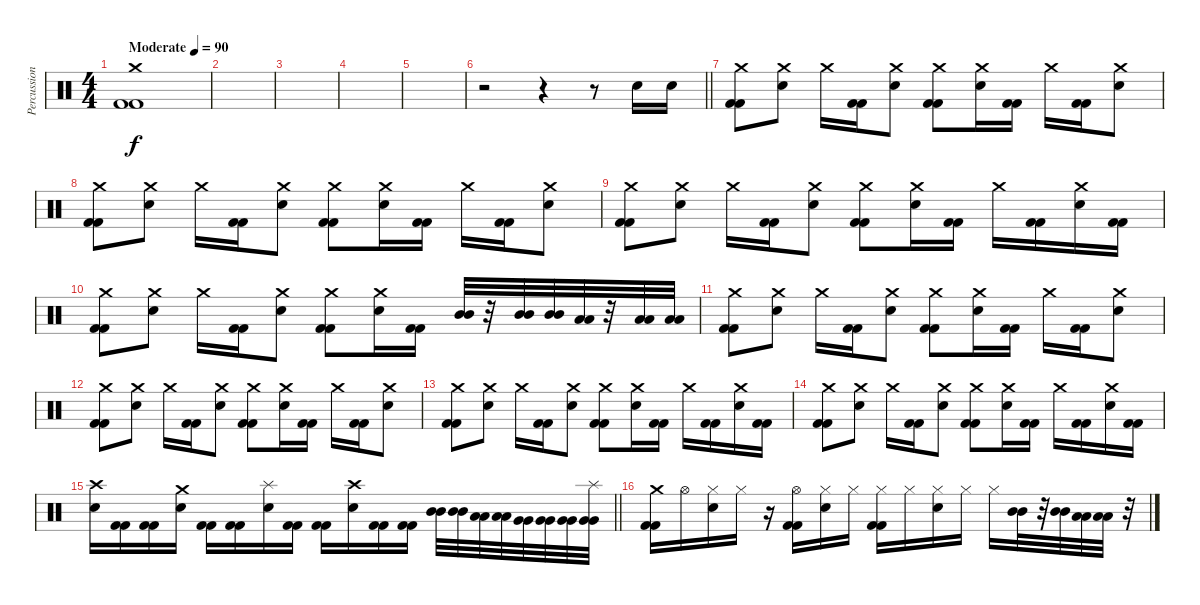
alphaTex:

\track ("Percussion" "Percussion") {instrument percussion}
\staff {score}
\articulation defaults
\ts (4 4)
\tempo (90 "Moderate")
\clef neutral
\ks c
("Crash medium (hit)" "Kick (hit) 2" "Kick (hit) 2").1{dy f} |
|
|
|
|
\barLineRight lightlight
r.2 r.4 r.8 "Electric Snare (hit)".16 "Electric Snare (hit)".16 |
\section ("" "")
("Crash medium (hit)" "Kick (hit) 2" "Kick (hit) 2").8 ("Crash medium (hit)" "Electric Snare (hit)").8 "Crash medium (hit)".16 ("Kick (hit) 2" "Kick (hit) 2").16 ("Crash medium (hit)" "Electric Snare (hit)").8 ("Crash medium (hit)" "Kick (hit) 2" "Kick (hit) 2").8 ("Crash medium (hit)" "Electric Snare (hit)").16 ("Kick (hit) 2" "Kick (hit) 2").16 "Crash medium (hit)".16 ("Kick (hit) 2" "Kick (hit) 2").16 ("Crash medium (hit)" "Electric Snare (hit)").8 |
("Crash medium (hit)" "Kick (hit) 2" "Kick (hit) 2").8 ("Crash medium (hit)" "Electric Snare (hit)").8 "Crash medium (hit)".16 ("Kick (hit) 2" "Kick (hit) 2").16 ("Crash medium (hit)" "Electric Snare (hit)").8 ("Crash medium (hit)" "Kick (hit) 2" "Kick (hit) 2").8 ("Crash medium (hit)" "Electric Snare (hit)").16 ("Kick (hit) 2" "Kick (hit) 2").16 "Crash medium (hit)".16 ("Kick (hit) 2" "Kick (hit) 2").16 ("Crash medium (hit)" "Electric Snare (hit)").8 |
("Crash medium (hit)" "Kick (hit) 2" "Kick (hit) 2").8 ("Crash medium (hit)" "Electric Snare (hit)").8 "Crash medium (hit)".16 ("Kick (hit) 2" "Kick (hit) 2").16 ("Crash medium (hit)" "Electric Snare (hit)").8 ("Crash medium (hit)" "Kick (hit) 2" "Kick (hit) 2").8 ("Crash medium (hit)" "Electric Snare (hit)").16 ("Kick (hit) 2" "Kick (hit) 2").16 "Crash medium (hit)".16 ("Kick (hit) 2" "Kick (hit) 2").16 ("Crash medium (hit)" "Electric Snare (hit)").16 ("Kick (hit) 2" "Kick (hit) 2").16 |
("Crash medium (hit)" "Kick (hit) 2" "Kick (hit) 2").8 ("Crash medium (hit)" "Electric Snare (hit)").8 "Crash medium (hit)".16 ("Kick (hit) 2" "Kick (hit) 2").16 ("Crash medium (hit)" "Electric Snare (hit)").8 ("Crash medium (hit)" "Kick (hit) 2" "Kick (hit) 2").8 ("Crash medium (hit)" "Electric Snare (hit)").16 ("Kick (hit) 2" "Kick (hit) 2").16 ("Mid Tom (hit)" "Mid Tom (hit)").32 r.32 ("Mid Tom (hit)" "Mid Tom (hit)").32 ("Mid Tom (hit)" "Mid Tom (hit)").32 ("Low Tom (hit)" "Low Tom (hit)").32 r.32 ("Low Tom (hit)" "Low Tom (hit)").32 ("Low Tom (hit)" "Low Tom (hit)").32 |
("Crash medium (hit)" "Kick (hit) 2" "Kick (hit) 2").8 ("Crash medium (hit)" "Electric Snare (hit)").8 "Crash medium (hit)".16 ("Kick (hit) 2" "Kick (hit) 2").16 ("Crash medium (hit)" "Electric Snare (hit)").8 ("Crash medium (hit)" "Kick (hit) 2" "Kick (hit) 2").8 ("Crash medium (hit)" "Electric Snare (hit)").16 ("Kick (hit) 2" "Kick (hit) 2").16 "Crash medium (hit)".16 ("Kick (hit) 2" "Kick (hit) 2").16 ("Crash medium (hit)" "Electric Snare (hit)").8 |
("Crash medium (hit)" "Kick (hit) 2" "Kick (hit) 2").8 ("Crash medium (hit)" "Electric Snare (hit)").8 "Crash medium (hit)".16 ("Kick (hit) 2" "Kick (hit) 2").16 ("Crash medium (hit)" "Electric Snare (hit)").8 ("Crash medium (hit)" "Kick (hit) 2" "Kick (hit) 2").8 ("Crash medium (hit)" "Electric Snare (hit)").16 ("Kick (hit) 2" "Kick (hit) 2").16 "Crash medium (hit)".16 ("Kick (hit) 2" "Kick (hit) 2").16 ("Crash medium (hit)" "Electric Snare (hit)").8 |
("Crash medium (hit)" "Kick (hit) 2" "Kick (hit) 2").8 ("Crash medium (hit)" "Electric Snare (hit)").8 "Crash medium (hit)".16 ("Kick (hit) 2" "Kick (hit) 2").16 ("Crash medium (hit)" "Electric Snare (hit)").8 ("Crash medium (hit)" "Kick (hit) 2" "Kick (hit) 2").8 ("Crash medium (hit)" "Electric Snare (hit)").16 ("Kick (hit) 2" "Kick (hit) 2").16 "Crash medium (hit)".16 ("Kick (hit) 2" "Kick (hit) 2").16 ("Crash medium (hit)" "Electric Snare (hit)").16 ("Kick (hit) 2" "Kick (hit) 2").16 |
("Crash medium (hit)" "Kick (hit) 2" "Kick (hit) 2").8 ("Crash medium (hit)" "Electric Snare (hit)").8 "Crash medium (hit)".16 ("Kick (hit) 2" "Kick (hit) 2").16 ("Crash medium (hit)" "Electric Snare (hit)").8 ("Crash medium (hit)" "Kick (hit) 2" "Kick (hit) 2").8 ("Crash medium (hit)" "Electric Snare (hit)").16 ("Kick (hit) 2" "Kick (hit) 2").16 "Crash medium (hit)".16 ("Kick (hit) 2" "Kick (hit) 2").16 ("Crash medium (hit)" "Electric Snare (hit)").16 ("Kick (hit) 2" "Kick (hit) 2").16 |
\barLineRight lightlight
("Crash high (hit)" "Electric Snare (hit)").16 ("Kick (hit) 2" "Kick (hit) 2").16 ("Kick (hit) 2" "Kick (hit) 2").16 ("Crash medium (hit)" "Electric Snare (hit)").16 ("Kick (hit) 2" "Kick (hit) 2").16 ("Kick (hit) 2" "Kick (hit) 2").16 ("Splash (hit)" "Electric Snare (hit)").16 ("Kick (hit) 2" "Kick (hit) 2").16 ("Kick (hit) 2" "Kick (hit) 2").16 ("Crash high (hit)" "Electric Snare (hit)").16 ("Kick (hit) 2" "Kick (hit) 2").16 ("Kick (hit) 2" "Kick (hit) 2").16 ("Mid Tom (hit)" "Mid Tom (hit)").32 ("Mid Tom (hit)" "Mid Tom (hit)").32 ("Low Tom (hit)" "Low Tom (hit)").32 ("Low Tom (hit)" "Low Tom (hit)").32 ("Very Low Tom (hit)" "Very Low Tom (hit)").32 ("Very Low Tom (hit)" "Very Low Tom (hit)").32 ("Very Low Tom (hit)" "Very Low Tom (hit)").32 ("Splash (hit)" "Very Low Tom (hit)" "Very Low Tom (hit)").32 |
\section ("" "")
("Crash medium (hit)" "Kick (hit) 2" "Kick (hit) 2").16 "Hi-Hat (open)".16 ("Hi-Hat (closed)" "Electric Snare (hit)").16 "Hi-Hat (closed)".16 r.16 ("Hi-Hat (open)" "Kick (hit) 2" "Kick (hit) 2").16 ("Hi-Hat (closed)" "Electric Snare (hit)").16 "Hi-Hat (closed)".16 ("Hi-Hat (closed)" "Kick (hit) 2" "Kick (hit) 2").16 "Hi-Hat (closed)".16 ("Hi-Hat (closed)" "Electric Snare (hit)").16 "Hi-Hat (closed)".16 "Hi-Hat (closed)".16 ("Mid Tom (hit)" "Mid Tom (hit)").32 r.32 ("Mid Tom (hit)" "Mid Tom (hit)").32 ("Low Tom (hit)" "Low Tom (hit)").32 ("Low Tom (hit)" "Low Tom (hit)").32 r.32
